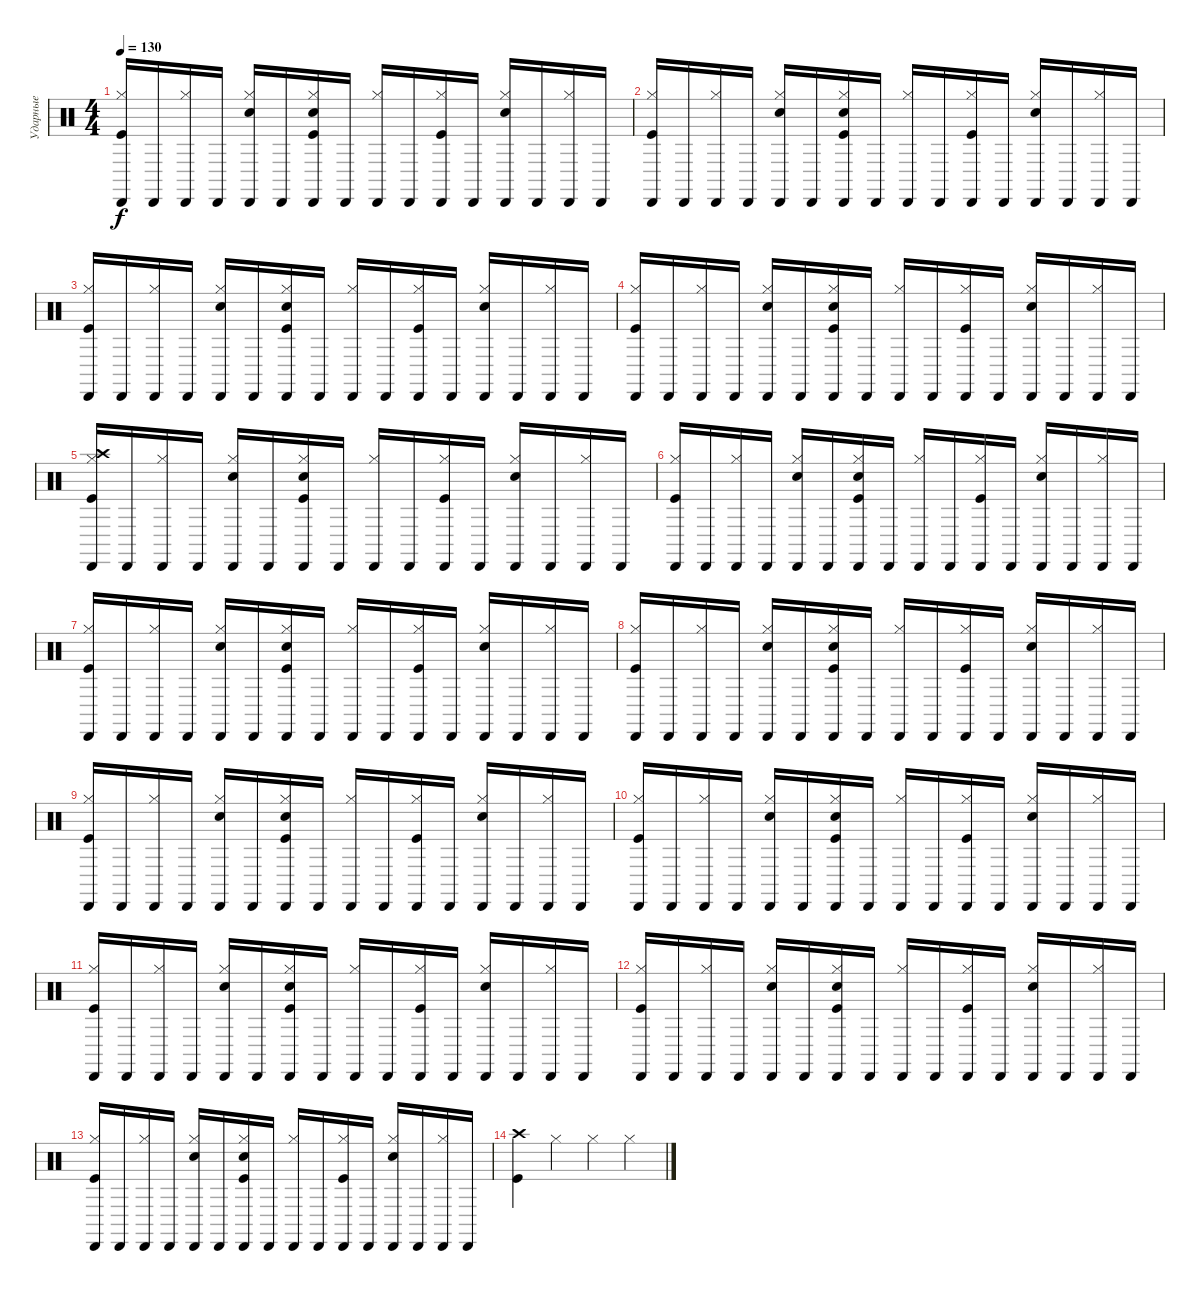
\track ("Ударные" "Ударные") {instrument percussion}
\staff {score}
\articulation defaults
\ts (4 4)
\tempo 130
\clef neutral
\ks c
("Cabasa (hit)" "Hi-Hat (closed)" "Kick (hit)").16{dy f} "Cabasa (hit)".16 ("Cabasa (hit)" "Hi-Hat (closed)").16 "Cabasa (hit)".16 ("Cabasa (hit)" "Hi-Hat (closed)" "Electric Snare (hit)").16 "Cabasa (hit)".16 ("Cabasa (hit)" "Hi-Hat (closed)" "Electric Snare (hit)" "Kick (hit)").16 "Cabasa (hit)".16 ("Cabasa (hit)" "Hi-Hat (closed)").16 "Cabasa (hit)".16 ("Cabasa (hit)" "Hi-Hat (closed)" "Kick (hit)").16 "Cabasa (hit)".16 ("Cabasa (hit)" "Hi-Hat (closed)" "Electric Snare (hit)").16 "Cabasa (hit)".16 ("Cabasa (hit)" "Hi-Hat (closed)").16 "Cabasa (hit)".16 |
("Cabasa (hit)" "Hi-Hat (closed)" "Kick (hit)").16 "Cabasa (hit)".16 ("Cabasa (hit)" "Hi-Hat (closed)").16 "Cabasa (hit)".16 ("Cabasa (hit)" "Hi-Hat (closed)" "Electric Snare (hit)").16 "Cabasa (hit)".16 ("Cabasa (hit)" "Hi-Hat (closed)" "Electric Snare (hit)" "Kick (hit)").16 "Cabasa (hit)".16 ("Cabasa (hit)" "Hi-Hat (closed)").16 "Cabasa (hit)".16 ("Cabasa (hit)" "Hi-Hat (closed)" "Kick (hit)").16 "Cabasa (hit)".16 ("Cabasa (hit)" "Hi-Hat (closed)" "Electric Snare (hit)").16 "Cabasa (hit)".16 ("Cabasa (hit)" "Hi-Hat (closed)").16 "Cabasa (hit)".16 |
("Cabasa (hit)" "Hi-Hat (closed)" "Kick (hit)").16 "Cabasa (hit)".16 ("Cabasa (hit)" "Hi-Hat (closed)").16 "Cabasa (hit)".16 ("Cabasa (hit)" "Hi-Hat (closed)" "Electric Snare (hit)").16 "Cabasa (hit)".16 ("Cabasa (hit)" "Hi-Hat (closed)" "Electric Snare (hit)" "Kick (hit)").16 "Cabasa (hit)".16 ("Cabasa (hit)" "Hi-Hat (closed)").16 "Cabasa (hit)".16 ("Cabasa (hit)" "Hi-Hat (closed)" "Kick (hit)").16 "Cabasa (hit)".16 ("Cabasa (hit)" "Hi-Hat (closed)" "Electric Snare (hit)").16 "Cabasa (hit)".16 ("Cabasa (hit)" "Hi-Hat (closed)").16 "Cabasa (hit)".16 |
("Cabasa (hit)" "Hi-Hat (closed)" "Kick (hit)").16 "Cabasa (hit)".16 ("Cabasa (hit)" "Hi-Hat (closed)").16 "Cabasa (hit)".16 ("Cabasa (hit)" "Hi-Hat (closed)" "Electric Snare (hit)").16 "Cabasa (hit)".16 ("Cabasa (hit)" "Hi-Hat (closed)" "Electric Snare (hit)" "Kick (hit)").16 "Cabasa (hit)".16 ("Cabasa (hit)" "Hi-Hat (closed)").16 "Cabasa (hit)".16 ("Cabasa (hit)" "Hi-Hat (closed)" "Kick (hit)").16 "Cabasa (hit)".16 ("Cabasa (hit)" "Hi-Hat (closed)" "Electric Snare (hit)").16 "Cabasa (hit)".16 ("Cabasa (hit)" "Hi-Hat (closed)").16 "Cabasa (hit)".16 |
("Cabasa (hit)" "Crash high (hit)" "Hi-Hat (closed)" "Kick (hit)").16 "Cabasa (hit)".16 ("Cabasa (hit)" "Hi-Hat (closed)").16 "Cabasa (hit)".16 ("Cabasa (hit)" "Hi-Hat (closed)" "Electric Snare (hit)").16 "Cabasa (hit)".16 ("Cabasa (hit)" "Hi-Hat (closed)" "Kick (hit)" "Electric Snare (hit)").16 "Cabasa (hit)".16 ("Cabasa (hit)" "Hi-Hat (closed)").16 "Cabasa (hit)".16 ("Cabasa (hit)" "Hi-Hat (closed)" "Kick (hit)").16 "Cabasa (hit)".16 ("Cabasa (hit)" "Hi-Hat (closed)" "Electric Snare (hit)").16 "Cabasa (hit)".16 ("Cabasa (hit)" "Hi-Hat (closed)").16 "Cabasa (hit)".16 |
("Cabasa (hit)" "Hi-Hat (closed)" "Kick (hit)").16 "Cabasa (hit)".16 ("Cabasa (hit)" "Hi-Hat (closed)").16 "Cabasa (hit)".16 ("Cabasa (hit)" "Hi-Hat (closed)" "Electric Snare (hit)").16 "Cabasa (hit)".16 ("Cabasa (hit)" "Hi-Hat (closed)" "Electric Snare (hit)" "Kick (hit)").16 "Cabasa (hit)".16 ("Cabasa (hit)" "Hi-Hat (closed)").16 "Cabasa (hit)".16 ("Cabasa (hit)" "Hi-Hat (closed)" "Kick (hit)").16 "Cabasa (hit)".16 ("Cabasa (hit)" "Hi-Hat (closed)" "Electric Snare (hit)").16 "Cabasa (hit)".16 ("Cabasa (hit)" "Hi-Hat (closed)").16 "Cabasa (hit)".16 |
("Cabasa (hit)" "Hi-Hat (closed)" "Kick (hit)").16 "Cabasa (hit)".16 ("Cabasa (hit)" "Hi-Hat (closed)").16 "Cabasa (hit)".16 ("Cabasa (hit)" "Hi-Hat (closed)" "Electric Snare (hit)").16 "Cabasa (hit)".16 ("Cabasa (hit)" "Hi-Hat (closed)" "Electric Snare (hit)" "Kick (hit)").16 "Cabasa (hit)".16 ("Cabasa (hit)" "Hi-Hat (closed)").16 "Cabasa (hit)".16 ("Cabasa (hit)" "Hi-Hat (closed)" "Kick (hit)").16 "Cabasa (hit)".16 ("Cabasa (hit)" "Hi-Hat (closed)" "Electric Snare (hit)").16 "Cabasa (hit)".16 ("Cabasa (hit)" "Hi-Hat (closed)").16 "Cabasa (hit)".16 |
("Cabasa (hit)" "Hi-Hat (closed)" "Kick (hit)").16 "Cabasa (hit)".16 ("Cabasa (hit)" "Hi-Hat (closed)").16 "Cabasa (hit)".16 ("Cabasa (hit)" "Hi-Hat (closed)" "Electric Snare (hit)").16 "Cabasa (hit)".16 ("Cabasa (hit)" "Hi-Hat (closed)" "Electric Snare (hit)" "Kick (hit)").16 "Cabasa (hit)".16 ("Cabasa (hit)" "Hi-Hat (closed)").16 "Cabasa (hit)".16 ("Cabasa (hit)" "Hi-Hat (closed)" "Kick (hit)").16 "Cabasa (hit)".16 ("Cabasa (hit)" "Hi-Hat (closed)" "Electric Snare (hit)").16 "Cabasa (hit)".16 ("Cabasa (hit)" "Hi-Hat (closed)").16 "Cabasa (hit)".16 |
("Cabasa (hit)" "Hi-Hat (closed)" "Kick (hit)").16 "Cabasa (hit)".16 ("Cabasa (hit)" "Hi-Hat (closed)").16 "Cabasa (hit)".16 ("Cabasa (hit)" "Hi-Hat (closed)" "Electric Snare (hit)").16 "Cabasa (hit)".16 ("Cabasa (hit)" "Hi-Hat (closed)" "Electric Snare (hit)" "Kick (hit)").16 "Cabasa (hit)".16 ("Cabasa (hit)" "Hi-Hat (closed)").16 "Cabasa (hit)".16 ("Cabasa (hit)" "Hi-Hat (closed)" "Kick (hit)").16 "Cabasa (hit)".16 ("Cabasa (hit)" "Hi-Hat (closed)" "Electric Snare (hit)").16 "Cabasa (hit)".16 ("Cabasa (hit)" "Hi-Hat (closed)").16 "Cabasa (hit)".16 |
("Cabasa (hit)" "Hi-Hat (closed)" "Kick (hit)").16 "Cabasa (hit)".16 ("Cabasa (hit)" "Hi-Hat (closed)").16 "Cabasa (hit)".16 ("Cabasa (hit)" "Hi-Hat (closed)" "Electric Snare (hit)").16 "Cabasa (hit)".16 ("Cabasa (hit)" "Hi-Hat (closed)" "Electric Snare (hit)" "Kick (hit)").16 "Cabasa (hit)".16 ("Cabasa (hit)" "Hi-Hat (closed)").16 "Cabasa (hit)".16 ("Cabasa (hit)" "Hi-Hat (closed)" "Kick (hit)").16 "Cabasa (hit)".16 ("Cabasa (hit)" "Hi-Hat (closed)" "Electric Snare (hit)").16 "Cabasa (hit)".16 ("Cabasa (hit)" "Hi-Hat (closed)").16 "Cabasa (hit)".16 |
("Cabasa (hit)" "Hi-Hat (closed)" "Kick (hit)").16 "Cabasa (hit)".16 ("Cabasa (hit)" "Hi-Hat (closed)").16 "Cabasa (hit)".16 ("Cabasa (hit)" "Hi-Hat (closed)" "Electric Snare (hit)").16 "Cabasa (hit)".16 ("Cabasa (hit)" "Hi-Hat (closed)" "Electric Snare (hit)" "Kick (hit)").16 "Cabasa (hit)".16 ("Cabasa (hit)" "Hi-Hat (closed)").16 "Cabasa (hit)".16 ("Cabasa (hit)" "Hi-Hat (closed)" "Kick (hit)").16 "Cabasa (hit)".16 ("Cabasa (hit)" "Hi-Hat (closed)" "Electric Snare (hit)").16 "Cabasa (hit)".16 ("Cabasa (hit)" "Hi-Hat (closed)").16 "Cabasa (hit)".16 |
("Cabasa (hit)" "Hi-Hat (closed)" "Kick (hit)").16 "Cabasa (hit)".16 ("Cabasa (hit)" "Hi-Hat (closed)").16 "Cabasa (hit)".16 ("Cabasa (hit)" "Hi-Hat (closed)" "Electric Snare (hit)").16 "Cabasa (hit)".16 ("Cabasa (hit)" "Hi-Hat (closed)" "Electric Snare (hit)" "Kick (hit)").16 "Cabasa (hit)".16 ("Cabasa (hit)" "Hi-Hat (closed)").16 "Cabasa (hit)".16 ("Cabasa (hit)" "Hi-Hat (closed)" "Kick (hit)").16 "Cabasa (hit)".16 ("Cabasa (hit)" "Hi-Hat (closed)" "Electric Snare (hit)").16 "Cabasa (hit)".16 ("Cabasa (hit)" "Hi-Hat (closed)").16 "Cabasa (hit)".16 |
("Cabasa (hit)" "Hi-Hat (closed)" "Kick (hit)").16 "Cabasa (hit)".16 ("Cabasa (hit)" "Hi-Hat (closed)").16 "Cabasa (hit)".16 ("Cabasa (hit)" "Hi-Hat (closed)" "Electric Snare (hit)").16 "Cabasa (hit)".16 ("Cabasa (hit)" "Hi-Hat (closed)" "Electric Snare (hit)" "Kick (hit)").16 "Cabasa (hit)".16 ("Cabasa (hit)" "Hi-Hat (closed)").16 "Cabasa (hit)".16 ("Cabasa (hit)" "Hi-Hat (closed)" "Kick (hit)").16 "Cabasa (hit)".16 ("Cabasa (hit)" "Hi-Hat (closed)" "Electric Snare (hit)").16 "Cabasa (hit)".16 ("Cabasa (hit)" "Hi-Hat (closed)").16 "Cabasa (hit)".16 |
("Crash high (hit)" "Kick (hit)").4 "Hi-Hat (closed)".4 "Hi-Hat (closed)".4 "Hi-Hat (closed)".4
